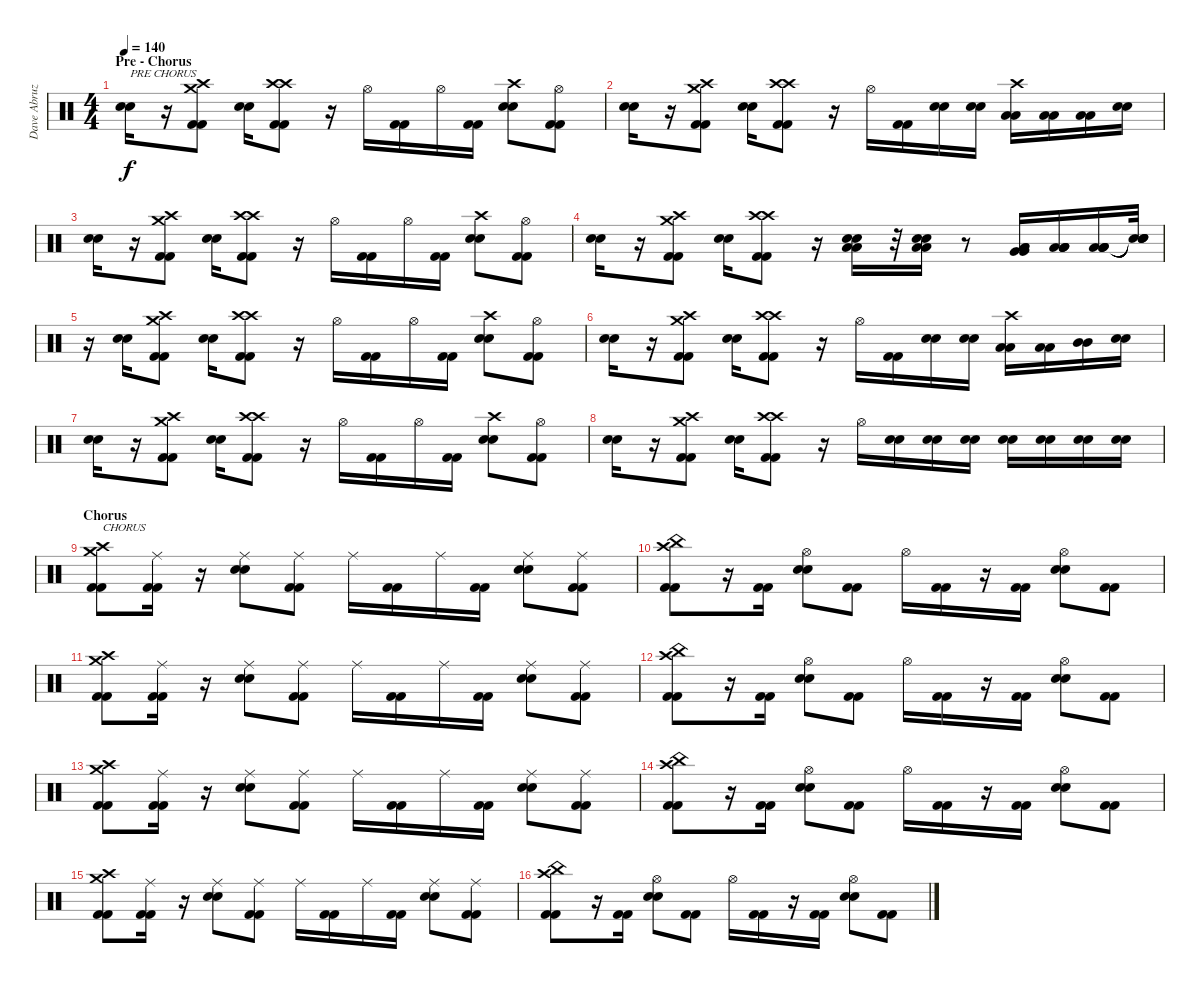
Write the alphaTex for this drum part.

\track ("Dave Abruzzese" "Dave Abruz") {instrument percussion}
\staff {score}
\articulation defaults
\ts (4 4)
\section ("" "Pre - Chorus ")
\tempo 140
\clef neutral
\ks c
("Electric Snare (hit)" "Electric Snare (hit)").16{txt "PRE CHORUS" dy f} r.16 ("Crash medium (hit)" "Kick (hit) 2" "Kick (hit) 2" "Crash high (hit)").8 ("Electric Snare (hit)" "Electric Snare (hit)").16 ("Crash high (hit)" "Kick (hit) 2" "Kick (hit) 2" "Crash high (hit)").8 r.16 "Hi-Hat (open)".16 ("Kick (hit) 2" "Kick (hit) 2").16 "Hi-Hat (open)".16 ("Kick (hit) 2" "Kick (hit) 2").16 ("Electric Snare (hit)" "Electric Snare (hit)" "Crash high (hit)").8 ("Kick (hit) 2" "Kick (hit) 2" "Hi-Hat (open)").8 |
("Electric Snare (hit)" "Electric Snare (hit)").16 r.16 ("Crash medium (hit)" "Kick (hit) 2" "Kick (hit) 2" "Crash high (hit)").8 ("Electric Snare (hit)" "Electric Snare (hit)").16 ("Crash high (hit)" "Kick (hit) 2" "Kick (hit) 2" "Crash high (hit)").8 r.16 "Hi-Hat (open)".16 ("Kick (hit) 2" "Kick (hit) 2").16 ("Electric Snare (hit)" "Electric Snare (hit)").16 ("Electric Snare (hit)" "Electric Snare (hit)").16 ("Low Tom (hit)" "Low Tom (hit)" "Crash high (hit)").16 ("Low Tom (hit)" "Low Tom (hit)").16 ("Low Tom (hit)" "Low Tom (hit)").16 ("Electric Snare (hit)" "Electric Snare (hit)").16 |
("Electric Snare (hit)" "Electric Snare (hit)").16 r.16 ("Crash medium (hit)" "Kick (hit) 2" "Kick (hit) 2" "Crash high (hit)").8 ("Electric Snare (hit)" "Electric Snare (hit)").16 ("Crash high (hit)" "Kick (hit) 2" "Kick (hit) 2" "Crash high (hit)").8 r.16 "Hi-Hat (open)".16 ("Kick (hit) 2" "Kick (hit) 2").16 "Hi-Hat (open)".16 ("Kick (hit) 2" "Kick (hit) 2").16 ("Electric Snare (hit)" "Electric Snare (hit)" "Crash high (hit)").8 ("Kick (hit) 2" "Kick (hit) 2" "Hi-Hat (open)").8 |
("Electric Snare (hit)" "Electric Snare (hit)").16 r.16 ("Crash medium (hit)" "Kick (hit) 2" "Kick (hit) 2" "Crash high (hit)").8 ("Electric Snare (hit)" "Electric Snare (hit)").16 ("Crash high (hit)" "Kick (hit) 2" "Kick (hit) 2" "Crash high (hit)").8 r.16 ("Low Tom (hit)" "Low Tom (hit)" "Electric Snare (hit)" "Electric Snare (hit)").16 r.32 ("Low Tom (hit)" "Low Tom (hit)" "Electric Snare (hit)" "Electric Snare (hit)").16 r.8 ("Very Low Tom (hit)" "Very Low Tom (hit)" "Low Tom (hit)" "Low Tom (hit)").16 ("Low Floor Tom (hit)" "Low Floor Tom (hit)" "Low Tom (hit)" "Low Tom (hit)").16 ("Low Floor Tom (hit)" "Low Floor Tom (hit)" "Low Tom (hit)" "Low Tom (hit)").16 ("Snare (hit)"{t} "Snare (hit)"{t} "Snare (hit)"{t} "Snare (hit)"{t}).32 |
r.16 ("Electric Snare (hit)" "Electric Snare (hit)").16 ("Crash medium (hit)" "Kick (hit) 2" "Kick (hit) 2" "Crash high (hit)").8 ("Electric Snare (hit)" "Electric Snare (hit)").16 ("Crash high (hit)" "Kick (hit) 2" "Kick (hit) 2" "Crash high (hit)").8 r.16 "Hi-Hat (open)".16 ("Kick (hit) 2" "Kick (hit) 2").16 "Hi-Hat (open)".16 ("Kick (hit) 2" "Kick (hit) 2").16 ("Electric Snare (hit)" "Electric Snare (hit)" "Crash high (hit)").8 ("Kick (hit) 2" "Kick (hit) 2" "Hi-Hat (open)").8 |
("Electric Snare (hit)" "Electric Snare (hit)").16 r.16 ("Crash medium (hit)" "Kick (hit) 2" "Kick (hit) 2" "Crash high (hit)").8 ("Electric Snare (hit)" "Electric Snare (hit)").16 ("Crash high (hit)" "Kick (hit) 2" "Kick (hit) 2" "Crash high (hit)").8 r.16 "Hi-Hat (open)".16 ("Kick (hit) 2" "Kick (hit) 2").16 ("Electric Snare (hit)" "Electric Snare (hit)").16 ("Electric Snare (hit)" "Electric Snare (hit)").16 ("Low Tom (hit)" "Low Tom (hit)" "Crash high (hit)").16 ("Low Tom (hit)" "Low Tom (hit)").16 ("Mid Tom (hit)" "Mid Tom (hit)").16 ("Electric Snare (hit)" "Electric Snare (hit)").16 |
("Electric Snare (hit)" "Electric Snare (hit)").16 r.16 ("Crash medium (hit)" "Kick (hit) 2" "Kick (hit) 2" "Crash high (hit)").8 ("Electric Snare (hit)" "Electric Snare (hit)").16 ("Crash high (hit)" "Kick (hit) 2" "Kick (hit) 2" "Crash high (hit)").8 r.16 "Hi-Hat (open)".16 ("Kick (hit) 2" "Kick (hit) 2").16 "Hi-Hat (open)".16 ("Kick (hit) 2" "Kick (hit) 2").16 ("Electric Snare (hit)" "Electric Snare (hit)" "Crash high (hit)").8 ("Kick (hit) 2" "Kick (hit) 2" "Hi-Hat (open)").8 |
("Electric Snare (hit)" "Electric Snare (hit)").16 r.16 ("Crash medium (hit)" "Kick (hit) 2" "Kick (hit) 2" "Crash high (hit)").8 ("Electric Snare (hit)" "Electric Snare (hit)").16 ("Crash high (hit)" "Kick (hit) 2" "Kick (hit) 2" "Crash high (hit)").8 r.16 "Hi-Hat (open)".16 ("Electric Snare (hit)" "Electric Snare (hit)").16 ("Electric Snare (hit)" "Electric Snare (hit)").16 ("Electric Snare (hit)" "Electric Snare (hit)").16 ("Electric Snare (hit)" "Electric Snare (hit)").16 ("Electric Snare (hit)" "Electric Snare (hit)").16 ("Electric Snare (hit)" "Electric Snare (hit)").16 ("Electric Snare (hit)" "Electric Snare (hit)").16 |
\section ("" "Chorus")
("Crash medium (hit)" "Kick (hit) 2" "Kick (hit) 2" "Crash high (hit)").8{txt "CHORUS"} ("Kick (hit) 2" "Kick (hit) 2" "Ride (middle)").16 r.16 ("Electric Snare (hit)" "Electric Snare (hit)" "Ride (middle)").8 ("Kick (hit) 2" "Kick (hit) 2" "Ride (middle)").8 "Ride (middle)".16 ("Kick (hit) 2" "Kick (hit) 2").16 "Ride (middle)".16 ("Kick (hit) 2" "Kick (hit) 2").16 ("Electric Snare (hit)" "Electric Snare (hit)" "Ride (middle)").8 ("Kick (hit) 2" "Kick (hit) 2" "Ride (middle)").8 |
("China (hit)" "Kick (hit) 2" "Kick (hit) 2" "Crash high (hit)").8 r.16 ("Kick (hit) 2" "Kick (hit) 2").16 ("Electric Snare (hit)" "Electric Snare (hit)" "Hi-Hat (open)").8 ("Kick (hit) 2" "Kick (hit) 2").8 "Hi-Hat (open)".16 ("Kick (hit) 2" "Kick (hit) 2").16 r.16 ("Kick (hit) 2" "Kick (hit) 2").16 ("Electric Snare (hit)" "Electric Snare (hit)" "Hi-Hat (open)").8 ("Kick (hit) 2" "Kick (hit) 2").8 |
("Crash medium (hit)" "Kick (hit) 2" "Kick (hit) 2" "Crash high (hit)").8 ("Kick (hit) 2" "Kick (hit) 2" "Ride (middle)").16 r.16 ("Electric Snare (hit)" "Electric Snare (hit)" "Ride (middle)").8 ("Kick (hit) 2" "Kick (hit) 2" "Ride (middle)").8 "Ride (middle)".16 ("Kick (hit) 2" "Kick (hit) 2").16 "Ride (middle)".16 ("Kick (hit) 2" "Kick (hit) 2").16 ("Electric Snare (hit)" "Electric Snare (hit)" "Ride (middle)").8 ("Kick (hit) 2" "Kick (hit) 2" "Ride (middle)").8 |
("China (hit)" "Kick (hit) 2" "Kick (hit) 2" "Crash high (hit)").8 r.16 ("Kick (hit) 2" "Kick (hit) 2").16 ("Electric Snare (hit)" "Electric Snare (hit)" "Hi-Hat (open)").8 ("Kick (hit) 2" "Kick (hit) 2").8 "Hi-Hat (open)".16 ("Kick (hit) 2" "Kick (hit) 2").16 r.16 ("Kick (hit) 2" "Kick (hit) 2").16 ("Electric Snare (hit)" "Electric Snare (hit)" "Hi-Hat (open)").8 ("Kick (hit) 2" "Kick (hit) 2").8 |
("Crash medium (hit)" "Kick (hit) 2" "Kick (hit) 2" "Crash high (hit)").8 ("Kick (hit) 2" "Kick (hit) 2" "Ride (middle)").16 r.16 ("Electric Snare (hit)" "Electric Snare (hit)" "Ride (middle)").8 ("Kick (hit) 2" "Kick (hit) 2" "Ride (middle)").8 "Ride (middle)".16 ("Kick (hit) 2" "Kick (hit) 2").16 "Ride (middle)".16 ("Kick (hit) 2" "Kick (hit) 2").16 ("Electric Snare (hit)" "Electric Snare (hit)" "Ride (middle)").8 ("Kick (hit) 2" "Kick (hit) 2" "Ride (middle)").8 |
("China (hit)" "Kick (hit) 2" "Kick (hit) 2" "Crash high (hit)").8 r.16 ("Kick (hit) 2" "Kick (hit) 2").16 ("Electric Snare (hit)" "Electric Snare (hit)" "Hi-Hat (open)").8 ("Kick (hit) 2" "Kick (hit) 2").8 "Hi-Hat (open)".16 ("Kick (hit) 2" "Kick (hit) 2").16 r.16 ("Kick (hit) 2" "Kick (hit) 2").16 ("Electric Snare (hit)" "Electric Snare (hit)" "Hi-Hat (open)").8 ("Kick (hit) 2" "Kick (hit) 2").8 |
("Crash medium (hit)" "Kick (hit) 2" "Kick (hit) 2" "Crash high (hit)").8 ("Kick (hit) 2" "Kick (hit) 2" "Ride (middle)").16 r.16 ("Electric Snare (hit)" "Electric Snare (hit)" "Ride (middle)").8 ("Kick (hit) 2" "Kick (hit) 2" "Ride (middle)").8 "Ride (middle)".16 ("Kick (hit) 2" "Kick (hit) 2").16 "Ride (middle)".16 ("Kick (hit) 2" "Kick (hit) 2").16 ("Electric Snare (hit)" "Electric Snare (hit)" "Ride (middle)").8 ("Kick (hit) 2" "Kick (hit) 2" "Ride (middle)").8 |
("China (hit)" "Kick (hit) 2" "Kick (hit) 2" "Crash high (hit)").8 r.16 ("Kick (hit) 2" "Kick (hit) 2").16 ("Electric Snare (hit)" "Electric Snare (hit)" "Hi-Hat (open)").8 ("Kick (hit) 2" "Kick (hit) 2").8 "Hi-Hat (open)".16 ("Kick (hit) 2" "Kick (hit) 2").16 r.16 ("Kick (hit) 2" "Kick (hit) 2").16 ("Electric Snare (hit)" "Electric Snare (hit)" "Hi-Hat (open)").8 ("Kick (hit) 2" "Kick (hit) 2").8
